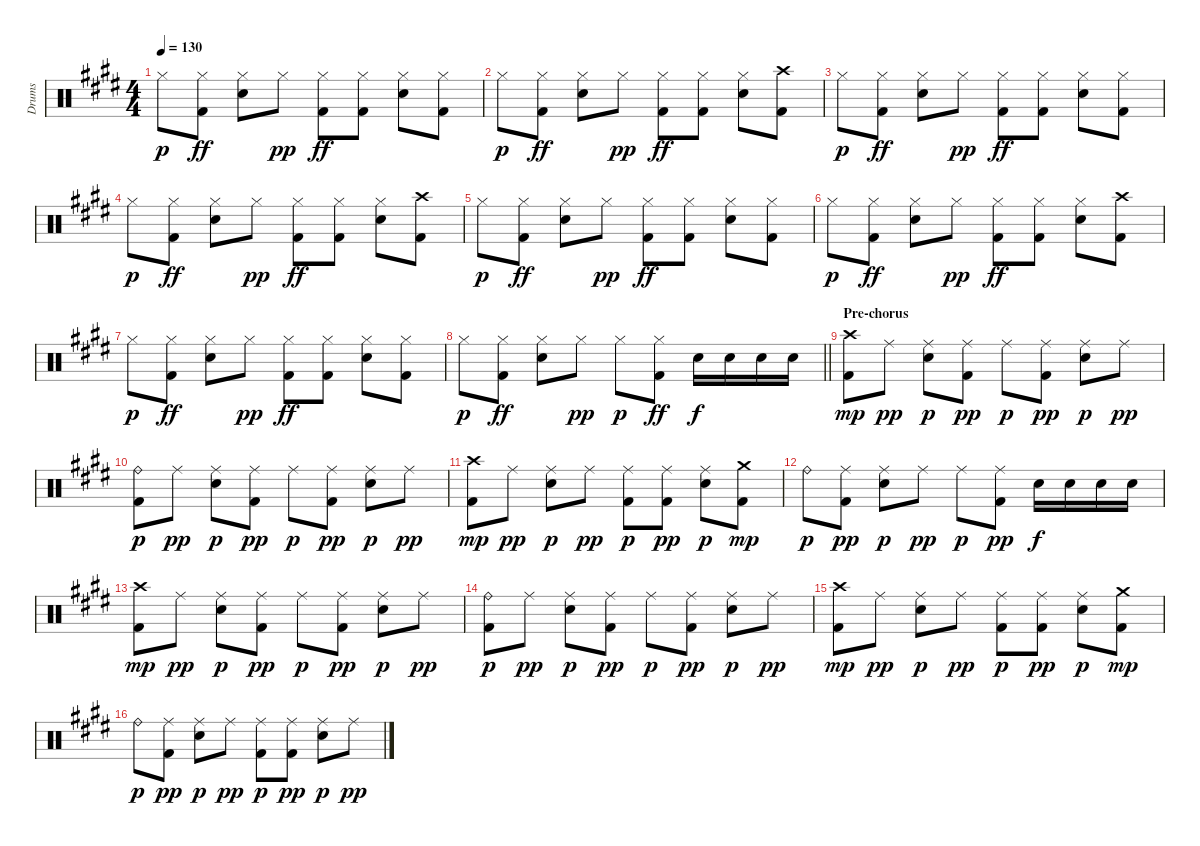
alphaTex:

\track ("Drums" "Drums") {instrument percussion}
\staff {score}
\articulation defaults
\ts (4 4)
\tempo 130
\clef neutral
\ks e "Hi-Hat (closed)".8{dy p}
("Hi-Hat (closed)" "Kick (hit) 2").8{dy ff} ("Hi-Hat (closed)" "Electric Snare (hit)").8 "Hi-Hat (closed)".8{dy pp} ("Hi-Hat (closed)" "Kick (hit) 2").8{dy ff} ("Hi-Hat (closed)" "Kick (hit) 2").8 ("Hi-Hat (closed)" "Electric Snare (hit)").8 ("Hi-Hat (closed)" "Kick (hit) 2").8 |
\ks c#minor "Hi-Hat (closed)".8{dy p}
("Hi-Hat (closed)" "Kick (hit) 2").8{dy ff} ("Hi-Hat (closed)" "Electric Snare (hit)").8 "Hi-Hat (closed)".8{dy pp} ("Hi-Hat (closed)" "Kick (hit) 2").8{dy ff} ("Hi-Hat (closed)" "Kick (hit) 2").8 ("Hi-Hat (closed)" "Electric Snare (hit)").8 ("Crash high (hit)" "Kick (hit) 2").8 |
\ks e "Hi-Hat (closed)".8{dy p}
("Hi-Hat (closed)" "Kick (hit) 2").8{dy ff} ("Hi-Hat (closed)" "Electric Snare (hit)").8 "Hi-Hat (closed)".8{dy pp} ("Hi-Hat (closed)" "Kick (hit) 2").8{dy ff} ("Hi-Hat (closed)" "Kick (hit) 2").8 ("Hi-Hat (closed)" "Electric Snare (hit)").8 ("Hi-Hat (closed)" "Kick (hit) 2").8 |
\ks c#minor "Hi-Hat (closed)".8{dy p}
("Hi-Hat (closed)" "Kick (hit) 2").8{dy ff} ("Hi-Hat (closed)" "Electric Snare (hit)").8 "Hi-Hat (closed)".8{dy pp} ("Hi-Hat (closed)" "Kick (hit) 2").8{dy ff} ("Hi-Hat (closed)" "Kick (hit) 2").8 ("Hi-Hat (closed)" "Electric Snare (hit)").8 ("Crash high (hit)" "Kick (hit) 2").8 |
\ks e "Hi-Hat (closed)".8{dy p}
("Hi-Hat (closed)" "Kick (hit) 2").8{dy ff} ("Hi-Hat (closed)" "Electric Snare (hit)").8 "Hi-Hat (closed)".8{dy pp} ("Hi-Hat (closed)" "Kick (hit) 2").8{dy ff} ("Hi-Hat (closed)" "Kick (hit) 2").8 ("Hi-Hat (closed)" "Electric Snare (hit)").8 ("Hi-Hat (closed)" "Kick (hit) 2").8 |
\ks c#minor "Hi-Hat (closed)".8{dy p}
("Hi-Hat (closed)" "Kick (hit) 2").8{dy ff} ("Hi-Hat (closed)" "Electric Snare (hit)").8 "Hi-Hat (closed)".8{dy pp} ("Hi-Hat (closed)" "Kick (hit) 2").8{dy ff} ("Hi-Hat (closed)" "Kick (hit) 2").8 ("Hi-Hat (closed)" "Electric Snare (hit)").8 ("Crash high (hit)" "Kick (hit) 2").8 |
\ks e "Hi-Hat (closed)".8{dy p}
("Hi-Hat (closed)" "Kick (hit) 2").8{dy ff} ("Hi-Hat (closed)" "Electric Snare (hit)").8 "Hi-Hat (closed)".8{dy pp} ("Hi-Hat (closed)" "Kick (hit) 2").8{dy ff} ("Hi-Hat (closed)" "Kick (hit) 2").8 ("Hi-Hat (closed)" "Electric Snare (hit)").8 ("Hi-Hat (closed)" "Kick (hit) 2").8 |
\barLineRight lightlight
\ks c#minor "Hi-Hat (closed)".8{dy p}
("Hi-Hat (closed)" "Kick (hit) 2").8{dy ff} ("Hi-Hat (closed)" "Electric Snare (hit)").8 "Hi-Hat (closed)".8{dy pp} "Hi-Hat (closed)".8{dy p} ("Hi-Hat (closed)" "Kick (hit) 2").8{dy ff} "Electric Snare (hit)".16{dy f} "Electric Snare (hit)".16 "Electric Snare (hit)".16 "Electric Snare (hit)".16 |
\section ("" "Pre-chorus")
\ks e
("Crash high (hit)" "Kick (hit) 2").8{dy mp} "Ride (middle)".8{dy pp} ("Ride (middle)" "Electric Snare (hit)").8{dy p} ("Ride (middle)" "Kick (hit) 2").8{dy pp} "Ride (middle)".8{dy p} ("Ride (middle)" "Kick (hit) 2").8{dy pp} ("Ride (middle)" "Electric Snare (hit)").8{dy p} "Ride (middle)".8{dy pp} |
\ks c#minor
("Ride (bell)" "Kick (hit) 2").8{dy p} "Ride (middle)".8{dy pp} ("Ride (middle)" "Electric Snare (hit)").8{dy p} ("Ride (middle)" "Kick (hit) 2").8{dy pp} "Ride (middle)".8{dy p} ("Ride (middle)" "Kick (hit) 2").8{dy pp} ("Ride (middle)" "Electric Snare (hit)").8{dy p} "Ride (middle)".8{dy pp} |
\ks e
("Crash high (hit)" "Kick (hit) 2").8{dy mp} "Ride (middle)".8{dy pp} ("Ride (middle)" "Electric Snare (hit)").8{dy p} "Ride (middle)".8{dy pp} ("Ride (middle)" "Kick (hit) 2").8{dy p} ("Ride (middle)" "Kick (hit) 2").8{dy pp} ("Ride (middle)" "Electric Snare (hit)").8{dy p} ("Crash medium (hit)" "Kick (hit) 2").8{dy mp} |
\ks c#minor "Ride (bell)".8{dy p}
("Ride (middle)" "Kick (hit) 2").8{dy pp} ("Ride (middle)" "Electric Snare (hit)").8{dy p} "Ride (middle)".8{dy pp} "Ride (middle)".8{dy p} ("Ride (middle)" "Kick (hit) 2").8{dy pp} "Electric Snare (hit)".16{dy f} "Electric Snare (hit)".16 "Electric Snare (hit)".16 "Electric Snare (hit)".16 |
\ks e
("Crash high (hit)" "Kick (hit) 2").8{dy mp} "Ride (middle)".8{dy pp} ("Ride (middle)" "Electric Snare (hit)").8{dy p} ("Ride (middle)" "Kick (hit) 2").8{dy pp} "Ride (middle)".8{dy p} ("Ride (middle)" "Kick (hit) 2").8{dy pp} ("Ride (middle)" "Electric Snare (hit)").8{dy p} "Ride (middle)".8{dy pp} |
\ks c#minor
("Ride (bell)" "Kick (hit) 2").8{dy p} "Ride (middle)".8{dy pp} ("Ride (middle)" "Electric Snare (hit)").8{dy p} ("Ride (middle)" "Kick (hit) 2").8{dy pp} "Ride (middle)".8{dy p} ("Ride (middle)" "Kick (hit) 2").8{dy pp} ("Ride (middle)" "Electric Snare (hit)").8{dy p} "Ride (middle)".8{dy pp} |
\ks e
("Crash high (hit)" "Kick (hit) 2").8{dy mp} "Ride (middle)".8{dy pp} ("Ride (middle)" "Electric Snare (hit)").8{dy p} "Ride (middle)".8{dy pp} ("Ride (middle)" "Kick (hit) 2").8{dy p} ("Ride (middle)" "Kick (hit) 2").8{dy pp} ("Ride (middle)" "Electric Snare (hit)").8{dy p} ("Crash medium (hit)" "Kick (hit) 2").8{dy mp} |
\ks c#minor "Ride (bell)".8{dy p}
("Ride (middle)" "Kick (hit) 2").8{dy pp} ("Ride (middle)" "Electric Snare (hit)").8{dy p} "Ride (middle)".8{dy pp} ("Ride (middle)" "Kick (hit) 2").8{dy p} ("Ride (middle)" "Kick (hit) 2").8{dy pp} ("Ride (middle)" "Electric Snare (hit)").8{dy p} "Ride (middle)".8{dy pp}
